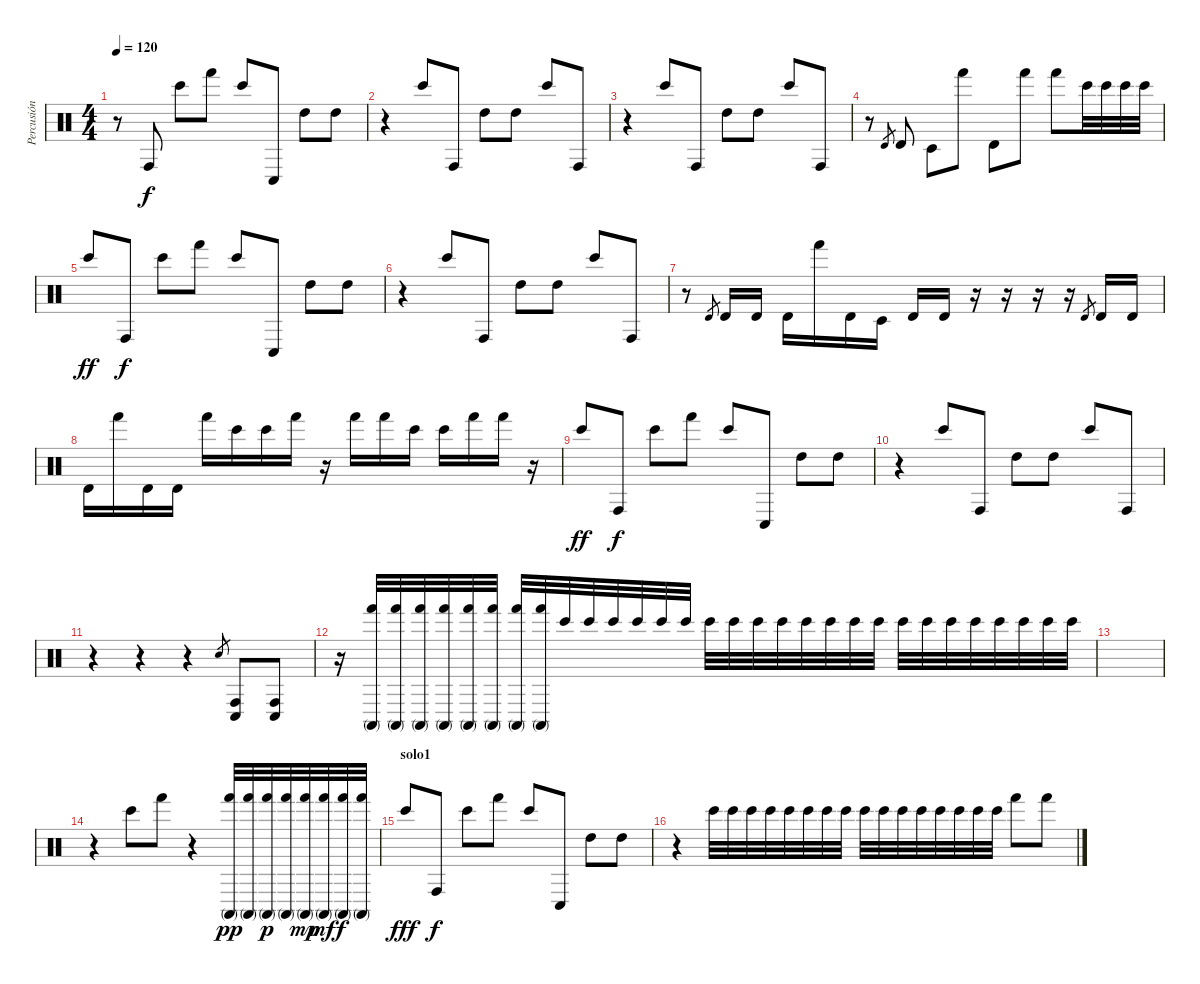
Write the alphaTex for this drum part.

\track ("Percusión" "Percusión") {instrument percussion}
\staff {score}
\articulation defaults
\ts (4 4)
\tempo 120
\clef neutral
\ks c
r.8{dy f} "Conga high (hit)".8 "Bongo High (hit)".8 "Hand (hit)".8 "Bongo High (hit)".8 "Conga low (hit)".8 "High Tom (hit)".8 "High Tom (hit)".8 |
r.4 "Bongo High (hit)".8 "Conga high (hit)".8 "High Tom (hit)".8 "High Tom (hit)".8 "Bongo High (hit)".8 "Conga high (hit)".8 |
r.4 "Bongo High (hit)".8 "Conga high (hit)".8 "High Tom (hit)".8 "High Tom (hit)".8 "Bongo High (hit)".8 "Conga high (hit)".8 |
r.8 "Timbale high (hit)".8{gr} "Timbale high (hit)".8 "Timbale low (hit)".8 "Hand (hit)".8 "Timbale high (hit)".8 "Hand (hit)".8 "Hand (hit)".8 "Bongo High (hit)".32 "Bongo High (hit)".32 "Bongo High (hit)".32 "Bongo High (hit)".32 |
"Bongo High (hit)".8{dy ff} "Conga high (hit)".8{dy f} "Bongo High (hit)".8 "Hand (hit)".8 "Bongo High (hit)".8 "Conga low (hit)".8 "High Tom (hit)".8 "High Tom (hit)".8 |
r.4 "Bongo High (hit)".8 "Conga high (hit)".8 "High Tom (hit)".8 "High Tom (hit)".8 "Bongo High (hit)".8 "Conga high (hit)".8 |
r.8 "Timbale high (hit)".8{gr} "Timbale high (hit)".16 "Timbale high (hit)".16 "Timbale high (hit)".16 "Hand (hit)".16 "Timbale high (hit)".16 "Timbale low (hit)".16 "Timbale high (hit)".16 "Timbale high (hit)".16 r.16 r.16 r.16 r.16 "Timbale high (hit)".8{gr} "Timbale high (hit)".16 "Timbale high (hit)".16 |
"Timbale high (hit)".16 "Hand (hit)".16 "Timbale high (hit)".16 "Timbale high (hit)".16 "Hand (hit)".16 "Bongo High (hit)".16 "Bongo High (hit)".16 "Hand (hit)".16 r.16 "Hand (hit)".16 "Hand (hit)".16 "Bongo High (hit)".16 "Bongo High (hit)".16 "Hand (hit)".16 "Hand (hit)".16 r.16 |
"Bongo High (hit)".8{dy ff} "Conga high (hit)".8{dy f} "Bongo High (hit)".8 "Hand (hit)".8 "Bongo High (hit)".8 "Conga low (hit)".8 "High Tom (hit)".8 "High Tom (hit)".8 |
r.4 "Bongo High (hit)".8 "Conga high (hit)".8 "High Tom (hit)".8 "High Tom (hit)".8 "Bongo High (hit)".8 "Conga high (hit)".8 |
r.4 r.4 r.4 "Snare (hit)".8{gr} ("Conga high (hit)" "Conga low (hit)").8 ("Conga high (hit)" "Conga low (hit)").8 |
r.16 ("Conga high (mute)" "Hand (hit)").32 ("Conga high (mute)" "Hand (hit)").32 ("Conga high (mute)" "Hand (hit)").32 ("Conga high (mute)" "Hand (hit)").32 ("Conga high (mute)" "Hand (hit)").32 ("Conga high (mute)" "Hand (hit)").32 ("Conga high (mute)" "Hand (hit)").32 ("Conga high (mute)" "Hand (hit)").32 "Bongo High (hit)".32 "Bongo High (hit)".32 "Bongo High (hit)".32 "Bongo High (hit)".32 "Bongo High (hit)".32 "Bongo High (hit)".32 "Bongo High (hit)".32 "Bongo High (hit)".32 "Bongo High (hit)".32 "Bongo High (hit)".32 "Bongo High (hit)".32 "Bongo High (hit)".32 "Bongo High (hit)".32 "Bongo High (hit)".32 "Bongo High (hit)".32 "Bongo High (hit)".32 "Bongo High (hit)".32 "Bongo High (hit)".32 "Bongo High (hit)".32 "Bongo High (hit)".32 "Bongo High (hit)".32 "Bongo High (hit)".32 |
|
r.4 "Bongo High (hit)".8 "Hand (hit)".8 r.4 ("Conga high (mute)" "Hand (hit)").32{dy pp} ("Conga high (mute)" "Hand (hit)").32 ("Conga high (mute)" "Hand (hit)").32{dy p} ("Conga high (mute)" "Hand (hit)").32 ("Conga high (mute)" "Hand (hit)").32{dy mp} ("Conga high (mute)" "Hand (hit)").32{dy mf} ("Conga high (mute)" "Hand (hit)").32{dy f} ("Conga high (mute)" "Hand (hit)").32 |
\section ("" "solo1")
"Bongo High (hit)".8{dy fff} "Conga high (hit)".8{dy f} "Bongo High (hit)".8 "Hand (hit)".8 "Bongo High (hit)".8 "Conga low (hit)".8 "High Tom (hit)".8 "High Tom (hit)".8 |
r.4 "Bongo High (hit)".32 "Bongo High (hit)".32 "Bongo High (hit)".32 "Bongo High (hit)".32 "Bongo High (hit)".32 "Bongo High (hit)".32 "Bongo High (hit)".32 "Bongo High (hit)".32 "Bongo High (hit)".32 "Bongo High (hit)".32 "Bongo High (hit)".32 "Bongo High (hit)".32 "Bongo High (hit)".32 "Bongo High (hit)".32 "Bongo High (hit)".32 "Bongo High (hit)".32 "Hand (hit)".8 "Hand (hit)".8
